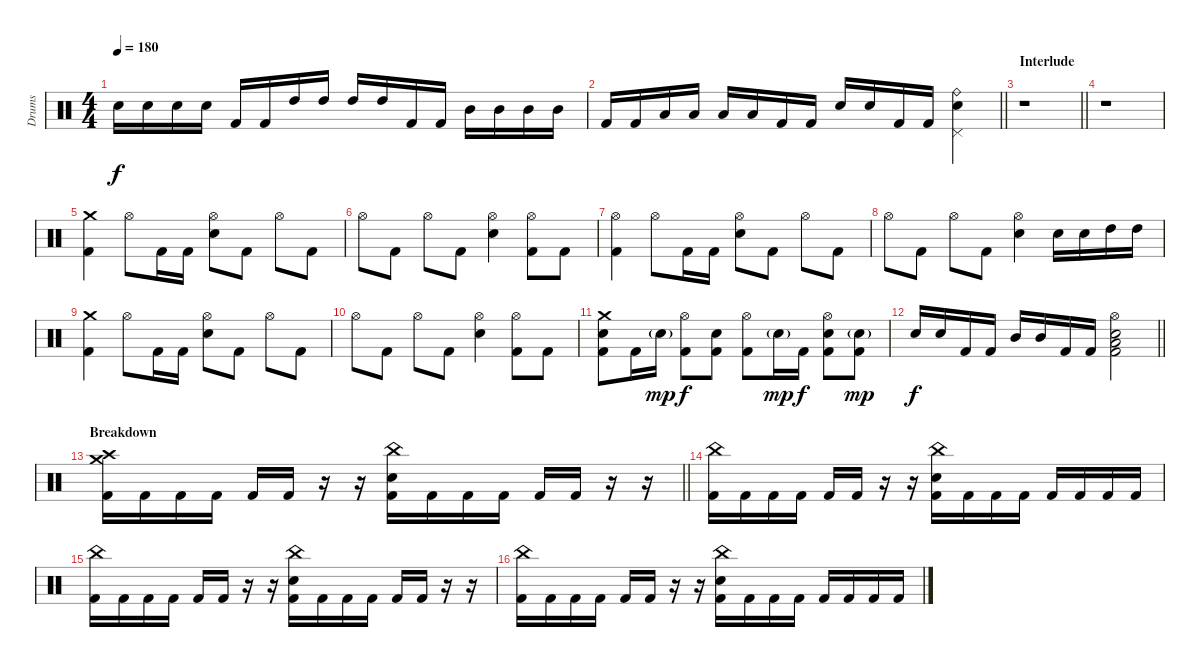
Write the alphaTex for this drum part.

\track ("Drums" "Drums") {instrument percussion}
\staff {score}
\articulation defaults
\ts (4 4)
\tempo 180
\clef neutral
\ks c "Snare (hit) 2".16{dy f} "Snare (hit) 2".16 "Snare (hit) 2".16 "Snare (hit) 2".16 "Kick (hit) 2".16 "Kick (hit) 2".16 "High Tom (hit)".16 "High Tom (hit)".16 "High Tom (hit)".16 "High Tom (hit)".16 "Kick (hit) 2".16 "Kick (hit) 2".16 "Mid Tom (hit)".16 "Mid Tom (hit)".16 "Mid Tom (hit)".16 "Mid Tom (hit)".16
|
\barLineRight lightlight "Kick (hit) 2".16 "Kick (hit) 2".16 "Low Tom (hit)".16 "Low Tom (hit)".16 "Low Tom (hit)".16 "Low Tom (hit)".16 "Kick (hit) 2".16 "Kick (hit) 2".16 "Snare (hit) 2".16 "Snare (hit) 2".16 "Kick (hit) 2".16 "Kick (hit) 2".16
("Pedal Hi-Hat (hit)" "Ride (bell)" "Snare (hit) 2").4 |
\section ("" "Interlude")
\barLineRight lightlight
r.1 |
r.1 |
("Crash medium (hit)" "Kick (hit) 2").4 "Hi-Hat (open)".8 "Kick (hit) 2".16 "Kick (hit) 2".16 ("Hi-Hat (open)" "Snare (hit) 2").8 "Kick (hit) 2".8 "Hi-Hat (open)".8 "Kick (hit) 2".8 |
"Hi-Hat (open)".8 "Kick (hit) 2".8 "Hi-Hat (open)".8 "Kick (hit) 2".8 ("Hi-Hat (open)" "Snare (hit) 2").4 ("Hi-Hat (open)" "Kick (hit) 2").8 "Kick (hit) 2".8 |
("Hi-Hat (open)" "Kick (hit) 2").4 "Hi-Hat (open)".8 "Kick (hit) 2".16 "Kick (hit) 2".16 ("Hi-Hat (open)" "Snare (hit) 2").8 "Kick (hit) 2".8 "Hi-Hat (open)".8 "Kick (hit) 2".8 |
"Hi-Hat (open)".8 "Kick (hit) 2".8 "Hi-Hat (open)".8 "Kick (hit) 2".8 ("Hi-Hat (open)" "Snare (hit) 2").4 "Snare (hit) 2".16 "Snare (hit) 2".16 "High Tom (hit)".16 "High Tom (hit)".16 |
("Crash medium (hit)" "Kick (hit) 2").4 "Hi-Hat (open)".8 "Kick (hit) 2".16 "Kick (hit) 2".16 ("Hi-Hat (open)" "Snare (hit) 2").8 "Kick (hit) 2".8 "Hi-Hat (open)".8 "Kick (hit) 2".8 |
"Hi-Hat (open)".8 "Kick (hit) 2".8 "Hi-Hat (open)".8 "Kick (hit) 2".8 ("Hi-Hat (open)" "Snare (hit) 2").4 ("Hi-Hat (open)" "Kick (hit) 2").8 "Kick (hit) 2".8 |
("Crash medium (hit)" "Snare (hit) 2" "Kick (hit) 2").8 "Kick (hit) 2".16 "Snare (hit) 2"{g}.16{dy mp} ("Hi-Hat (open)" "Kick (hit) 2").8{dy f} ("Snare (hit) 2" "Kick (hit) 2").8 ("Hi-Hat (open)" "Kick (hit) 2").8 "Snare (hit) 2"{g}.16{dy mp} "Kick (hit) 2".16{dy f} ("Hi-Hat (open)" "Snare (hit) 2" "Kick (hit) 2").8 ("Snare (hit) 2"{g} "Kick (hit) 2").8{dy mp} |
\barLineRight lightlight "Snare (hit) 2".16{dy f} "Snare (hit) 2".16 "Kick (hit) 2".16 "Kick (hit) 2".16 "Mid Tom (hit)".16 "Mid Tom (hit)".16 "Kick (hit) 2".16 "Kick (hit) 2".16
("Hi-Hat (open)" "Low Tom (hit)" "Snare (hit) 2" "Kick (hit) 2").2 |
\section ("" "Breakdown")
\barLineRight lightlight
("Crash medium (hit)" "Crash high (hit)" "Kick (hit) 2").16 "Kick (hit) 2".16 "Kick (hit) 2".16 "Kick (hit) 2".16 "Kick (hit) 2".16 "Kick (hit) 2".16 r.16 r.16 ("China (hit)" "Snare (hit) 2" "Kick (hit) 2").16 "Kick (hit) 2".16 "Kick (hit) 2".16 "Kick (hit) 2".16 "Kick (hit) 2".16 "Kick (hit) 2".16 r.16 r.16 |
("China (hit)" "Kick (hit) 2").16 "Kick (hit) 2".16 "Kick (hit) 2".16 "Kick (hit) 2".16 "Kick (hit) 2".16 "Kick (hit) 2".16 r.16 r.16 ("China (hit)" "Snare (hit) 2" "Kick (hit) 2").16 "Kick (hit) 2".16 "Kick (hit) 2".16 "Kick (hit) 2".16 "Kick (hit) 2".16 "Kick (hit) 2".16 "Kick (hit) 2".16 "Kick (hit) 2".16 |
("China (hit)" "Kick (hit) 2").16 "Kick (hit) 2".16 "Kick (hit) 2".16 "Kick (hit) 2".16 "Kick (hit) 2".16 "Kick (hit) 2".16 r.16 r.16 ("China (hit)" "Snare (hit) 2" "Kick (hit) 2").16 "Kick (hit) 2".16 "Kick (hit) 2".16 "Kick (hit) 2".16 "Kick (hit) 2".16 "Kick (hit) 2".16 r.16 r.16 |
("China (hit)" "Kick (hit) 2").16 "Kick (hit) 2".16 "Kick (hit) 2".16 "Kick (hit) 2".16 "Kick (hit) 2".16 "Kick (hit) 2".16 r.16 r.16 ("China (hit)" "Snare (hit) 2" "Kick (hit) 2").16 "Kick (hit) 2".16 "Kick (hit) 2".16 "Kick (hit) 2".16 "Kick (hit) 2".16 "Kick (hit) 2".16 "Kick (hit) 2".16 "Kick (hit) 2".16
